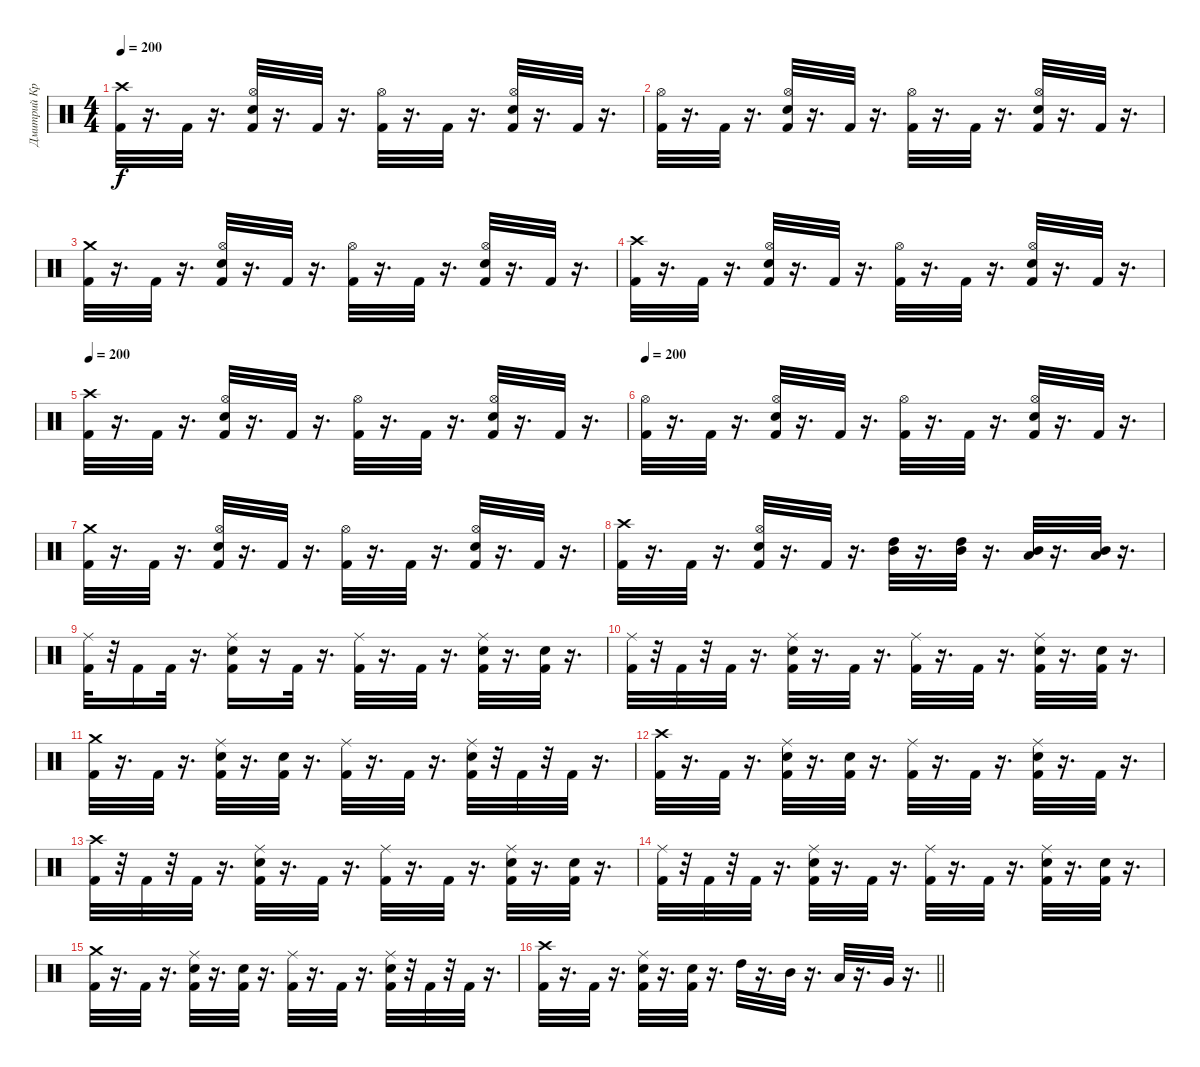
\track ("Дмитрий Кривенков" "Дмитрий Кр") {instrument percussion}
\staff {score}
\articulation defaults
\ts (4 4)
\tempo 200
\clef neutral
\ks c
("Crash high (hit)" "Kick (hit) 2").32{dy f} r.16{d} "Kick (hit) 2".32 r.16{d} ("Hi-Hat (open)" "Electric Snare (hit)" "Kick (hit) 2").32 r.16{d} "Kick (hit) 2".32 r.16{d} ("Hi-Hat (open)" "Kick (hit) 2").32 r.16{d} "Kick (hit) 2".32 r.16{d} ("Hi-Hat (open)" "Electric Snare (hit)" "Kick (hit) 2").32 r.16{d} "Kick (hit) 2".32 r.16{d} |
("Hi-Hat (open)" "Kick (hit) 2").32 r.16{d} "Kick (hit) 2".32 r.16{d} ("Hi-Hat (open)" "Electric Snare (hit)" "Kick (hit) 2").32 r.16{d} "Kick (hit) 2".32 r.16{d} ("Hi-Hat (open)" "Kick (hit) 2").32 r.16{d} "Kick (hit) 2".32 r.16{d} ("Hi-Hat (open)" "Electric Snare (hit)" "Kick (hit) 2").32 r.16{d} "Kick (hit) 2".32 r.16{d} |
("Kick (hit) 2" "Crash medium (hit)").32 r.16{d} "Kick (hit) 2".32 r.16{d} ("Kick (hit) 2" "Electric Snare (hit)" "Hi-Hat (open)").32 r.16{d} "Kick (hit) 2".32 r.16{d} ("Kick (hit) 2" "Hi-Hat (open)").32 r.16{d} "Kick (hit) 2".32 r.16{d} ("Kick (hit) 2" "Hi-Hat (open)" "Electric Snare (hit)").32 r.16{d} "Kick (hit) 2".32 r.16{d} |
("Kick (hit) 2" "Crash high (hit)").32 r.16{d} "Kick (hit) 2".32 r.16{d} ("Kick (hit) 2" "Electric Snare (hit)" "Hi-Hat (open)").32 r.16{d} "Kick (hit) 2".32 r.16{d} ("Hi-Hat (open)" "Kick (hit) 2").32 r.16{d} "Kick (hit) 2".32 r.16{d} ("Kick (hit) 2" "Electric Snare (hit)" "Hi-Hat (open)").32 r.16{d} "Kick (hit) 2".32 r.16{d} |
\tempo 200
("Crash high (hit)" "Kick (hit) 2").32 r.16{d} "Kick (hit) 2".32 r.16{d} ("Hi-Hat (open)" "Electric Snare (hit)" "Kick (hit) 2").32 r.16{d} "Kick (hit) 2".32 r.16{d} ("Hi-Hat (open)" "Kick (hit) 2").32 r.16{d} "Kick (hit) 2".32 r.16{d} ("Hi-Hat (open)" "Electric Snare (hit)" "Kick (hit) 2").32 r.16{d} "Kick (hit) 2".32 r.16{d} |
\tempo 200
("Hi-Hat (open)" "Kick (hit) 2").32 r.16{d} "Kick (hit) 2".32 r.16{d} ("Hi-Hat (open)" "Electric Snare (hit)" "Kick (hit) 2").32 r.16{d} "Kick (hit) 2".32 r.16{d} ("Hi-Hat (open)" "Kick (hit) 2").32 r.16{d} "Kick (hit) 2".32 r.16{d} ("Hi-Hat (open)" "Electric Snare (hit)" "Kick (hit) 2").32 r.16{d} "Kick (hit) 2".32 r.16{d} |
("Kick (hit) 2" "Crash medium (hit)").32 r.16{d} "Kick (hit) 2".32 r.16{d} ("Kick (hit) 2" "Electric Snare (hit)" "Hi-Hat (open)").32 r.16{d} "Kick (hit) 2".32 r.16{d} ("Kick (hit) 2" "Hi-Hat (open)").32 r.16{d} "Kick (hit) 2".32 r.16{d} ("Kick (hit) 2" "Hi-Hat (open)" "Electric Snare (hit)").32 r.16{d} "Kick (hit) 2".32 r.16{d} |
("Kick (hit) 2" "Crash high (hit)").32 r.16{d} "Kick (hit) 2".32 r.16{d} ("Kick (hit) 2" "Electric Snare (hit)" "Hi-Hat (open)").32 r.16{d} "Kick (hit) 2".32 r.16{d} ("Mid Tom (hit)" "High Tom (hit)").32 r.16{d} ("Mid Tom (hit)" "High Tom (hit)").32 r.16{d} ("Low Tom (hit)" "Mid Tom (hit)").32 r.16{d} ("Low Tom (hit)" "Mid Tom (hit)").32 r.16{d} |
("Ride (middle)" "Kick (hit) 2").32 r.32 "Kick (hit) 2".16 "Kick (hit) 2".32 r.16{d} ("Ride (middle)" "Electric Snare (hit)" "Kick (hit) 2").16 r.16 "Kick (hit) 2".32 r.16{d} ("Ride (middle)" "Kick (hit) 2").32 r.16{d} "Kick (hit) 2".32 r.16{d} ("Kick (hit) 2" "Ride (middle)" "Electric Snare (hit)").32 r.16{d} ("Kick (hit) 2" "Electric Snare (hit)").32 r.16{d} |
("Ride (middle)" "Kick (hit) 2").32 r.32 "Kick (hit) 2".32 r.32 "Kick (hit) 2".32 r.16{d} ("Ride (middle)" "Electric Snare (hit)" "Kick (hit) 2").32 r.16{d} "Kick (hit) 2".32 r.16{d} ("Ride (middle)" "Kick (hit) 2").32 r.16{d} "Kick (hit) 2".32 r.16{d} ("Ride (middle)" "Electric Snare (hit)" "Kick (hit) 2").32 r.16{d} ("Electric Snare (hit)" "Kick (hit) 2").32 r.16{d} |
("Kick (hit) 2" "Crash medium (hit)").32 r.16{d} "Kick (hit) 2".32 r.16{d} ("Kick (hit) 2" "Electric Snare (hit)" "Ride (middle)").32 r.16{d} ("Electric Snare (hit)" "Kick (hit) 2").32 r.16{d} ("Kick (hit) 2" "Ride (middle)").32 r.16{d} "Kick (hit) 2".32 r.16{d} ("Kick (hit) 2" "Ride (middle)" "Electric Snare (hit)").32 r.32 "Kick (hit) 2".32 r.32 "Kick (hit) 2".32 r.16{d} |
("Kick (hit) 2" "Crash high (hit)").32 r.16{d} "Kick (hit) 2".32 r.16{d} ("Kick (hit) 2" "Electric Snare (hit)" "Ride (middle)").32 r.16{d} ("Electric Snare (hit)" "Kick (hit) 2").32 r.16{d} ("Ride (middle)" "Kick (hit) 2").32 r.16{d} "Kick (hit) 2".32 r.16{d} ("Kick (hit) 2" "Electric Snare (hit)" "Ride (middle)").32 r.16{d} "Kick (hit) 2".32 r.16{d} |
("Crash high (hit)" "Kick (hit) 2").32 r.32 "Kick (hit) 2".32 r.32 "Kick (hit) 2".32 r.16{d} ("Ride (middle)" "Electric Snare (hit)" "Kick (hit) 2").32 r.16{d} "Kick (hit) 2".32 r.16{d} ("Ride (middle)" "Kick (hit) 2").32 r.16{d} "Kick (hit) 2".32 r.16{d} ("Ride (middle)" "Electric Snare (hit)" "Kick (hit) 2").32 r.16{d} ("Electric Snare (hit)" "Kick (hit) 2").32 r.16{d} |
("Ride (middle)" "Kick (hit) 2").32 r.32 "Kick (hit) 2".32 r.32 "Kick (hit) 2".32 r.16{d} ("Ride (middle)" "Electric Snare (hit)" "Kick (hit) 2").32 r.16{d} "Kick (hit) 2".32 r.16{d} ("Ride (middle)" "Kick (hit) 2").32 r.16{d} "Kick (hit) 2".32 r.16{d} ("Ride (middle)" "Electric Snare (hit)" "Kick (hit) 2").32 r.16{d} ("Electric Snare (hit)" "Kick (hit) 2").32 r.16{d} |
("Kick (hit) 2" "Crash medium (hit)").32 r.16{d} "Kick (hit) 2".32 r.16{d} ("Kick (hit) 2" "Electric Snare (hit)" "Ride (middle)").32 r.16{d} ("Electric Snare (hit)" "Kick (hit) 2").32 r.16{d} ("Kick (hit) 2" "Ride (middle)").32 r.16{d} "Kick (hit) 2".32 r.16{d} ("Kick (hit) 2" "Ride (middle)" "Electric Snare (hit)").32 r.32 "Kick (hit) 2".32 r.32 "Kick (hit) 2".32 r.16{d} |
\barLineRight lightlight
("Kick (hit) 2" "Crash high (hit)").32 r.16{d} "Kick (hit) 2".32 r.16{d} ("Kick (hit) 2" "Electric Snare (hit)" "Ride (middle)").32 r.16{d} ("Electric Snare (hit)" "Kick (hit) 2").32 r.16{d} "High Tom (hit)".32 r.16{d} "Mid Tom (hit)".32 r.16{d} "Low Tom (hit)".32 r.16{d} "Very Low Tom (hit)".32 r.16{d}
